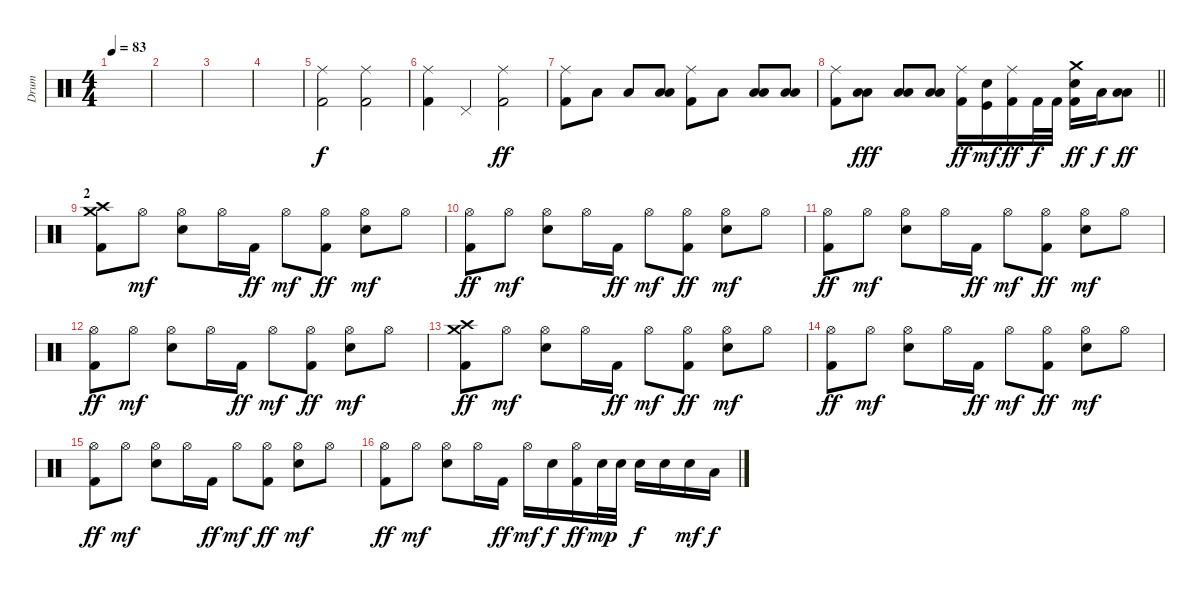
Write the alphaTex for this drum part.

\track ("Drum" "Drum") {instrument percussion}
\staff {score}
\articulation defaults
\ts (4 4)
\tempo 83
\clef neutral
\ks c
|
|
|
|
("Ride (middle)" "Kick (hit) 2").2 ("Ride (middle)" "Kick (hit) 2").2 |
("Ride (middle)" "Kick (hit) 2").4 "Pedal Hi-Hat (hit)".4{dy f} ("Ride (middle)" "Kick (hit) 2").2{dy ff} |
("Ride (middle)" "Kick (hit) 2").8 "Low Floor Tom (hit)".8 "Low Floor Tom (hit)".8 ("Low Tom (hit)" "Low Floor Tom (hit)").8 ("Ride (middle)" "Kick (hit) 2").8 "Low Floor Tom (hit)".8 ("Low Tom (hit)" "Low Floor Tom (hit)").8 ("Low Tom (hit)" "Low Floor Tom (hit)").8 |
\barLineRight lightlight
("Ride (middle)" "Kick (hit) 2").8 ("Low Tom (hit)" "Low Floor Tom (hit)").8{dy fff} ("Low Tom (hit)" "Low Floor Tom (hit)").8 ("Low Tom (hit)" "Low Floor Tom (hit)").8 ("Ride (middle)" "Kick (hit) 2").16{dy ff} ("Electric Snare (hit)" "Kick (hit)").16{dy mf} ("Ride (middle)" "Kick (hit) 2").16{dy ff} "Kick (hit) 2".32{dy f} "Kick (hit) 2".32 ("Crash medium (hit)" "Electric Snare (hit)" "Kick (hit) 2").16{dy ff} "Low Tom (hit)".16{dy f} ("Low Tom (hit)" "Low Floor Tom (hit)").8{dy ff} |
\section ("" "2")
("Crash medium (hit)" "Crash high (hit)" "Kick (hit) 2").8 "Hi-Hat (open)".8{dy mf} ("Electric Snare (hit)" "Hi-Hat (open)").8 "Hi-Hat (open)".16 "Kick (hit) 2".16{dy ff} "Hi-Hat (open)".8{dy mf} ("Hi-Hat (open)" "Kick (hit) 2").8{dy ff} ("Electric Snare (hit)" "Hi-Hat (open)").8{dy mf} "Hi-Hat (open)".8 |
("Hi-Hat (open)" "Kick (hit) 2").8{dy ff} "Hi-Hat (open)".8{dy mf} ("Electric Snare (hit)" "Hi-Hat (open)").8 "Hi-Hat (open)".16 "Kick (hit) 2".16{dy ff} "Hi-Hat (open)".8{dy mf} ("Hi-Hat (open)" "Kick (hit) 2").8{dy ff} ("Electric Snare (hit)" "Hi-Hat (open)").8{dy mf} "Hi-Hat (open)".8 |
("Hi-Hat (open)" "Kick (hit) 2").8{dy ff} "Hi-Hat (open)".8{dy mf} ("Electric Snare (hit)" "Hi-Hat (open)").8 "Hi-Hat (open)".16 "Kick (hit) 2".16{dy ff} "Hi-Hat (open)".8{dy mf} ("Hi-Hat (open)" "Kick (hit) 2").8{dy ff} ("Electric Snare (hit)" "Hi-Hat (open)").8{dy mf} "Hi-Hat (open)".8 |
("Hi-Hat (open)" "Kick (hit) 2").8{dy ff} "Hi-Hat (open)".8{dy mf} ("Electric Snare (hit)" "Hi-Hat (open)").8 "Hi-Hat (open)".16 "Kick (hit) 2".16{dy ff} "Hi-Hat (open)".8{dy mf} ("Hi-Hat (open)" "Kick (hit) 2").8{dy ff} ("Electric Snare (hit)" "Hi-Hat (open)").8{dy mf} "Hi-Hat (open)".8 |
("Crash medium (hit)" "Crash high (hit)" "Kick (hit) 2").8{dy ff} "Hi-Hat (open)".8{dy mf} ("Electric Snare (hit)" "Hi-Hat (open)").8 "Hi-Hat (open)".16 "Kick (hit) 2".16{dy ff} "Hi-Hat (open)".8{dy mf} ("Hi-Hat (open)" "Kick (hit) 2").8{dy ff} ("Electric Snare (hit)" "Hi-Hat (open)").8{dy mf} "Hi-Hat (open)".8 |
("Hi-Hat (open)" "Kick (hit) 2").8{dy ff} "Hi-Hat (open)".8{dy mf} ("Electric Snare (hit)" "Hi-Hat (open)").8 "Hi-Hat (open)".16 "Kick (hit) 2".16{dy ff} "Hi-Hat (open)".8{dy mf} ("Hi-Hat (open)" "Kick (hit) 2").8{dy ff} ("Electric Snare (hit)" "Hi-Hat (open)").8{dy mf} "Hi-Hat (open)".8 |
("Hi-Hat (open)" "Kick (hit) 2").8{dy ff} "Hi-Hat (open)".8{dy mf} ("Electric Snare (hit)" "Hi-Hat (open)").8 "Hi-Hat (open)".16 "Kick (hit) 2".16{dy ff} "Hi-Hat (open)".8{dy mf} ("Hi-Hat (open)" "Kick (hit) 2").8{dy ff} ("Electric Snare (hit)" "Hi-Hat (open)").8{dy mf} "Hi-Hat (open)".8 |
("Hi-Hat (open)" "Kick (hit) 2").8{dy ff} "Hi-Hat (open)".8{dy mf} ("Electric Snare (hit)" "Hi-Hat (open)").8 "Hi-Hat (open)".16 "Kick (hit) 2".16{dy ff} "Hi-Hat (open)".16{dy mf} "Electric Snare (hit)".16{dy f} ("Hi-Hat (open)" "Kick (hit) 2").16{dy ff} "Electric Snare (hit)".32{dy mp} "Electric Snare (hit)".32 "Electric Snare (hit)".16{dy f} "Electric Snare (hit)".16 "Electric Snare (hit)".16{dy mf} "Low Tom (hit)".16{dy f}
